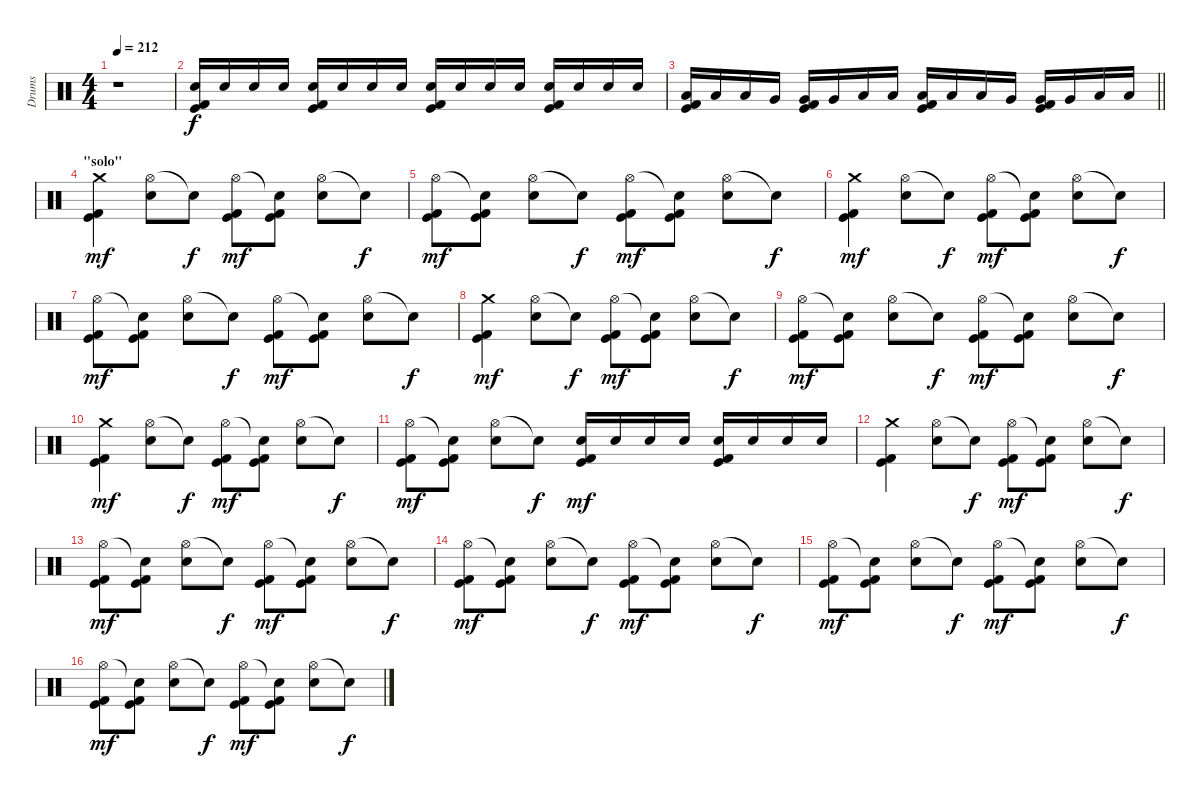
\track ("Drums" "Drums") {instrument percussion}
\staff {score}
\articulation defaults
\ts (4 4)
\tempo 212
\clef neutral
\ks c
r.1{dy ff} |
("Snare (hit) 2" "Kick (hit)" "Kick (hit) 2").16{dy f} "Snare (hit) 2".16 "Snare (hit) 2".16 "Snare (hit) 2".16 ("Snare (hit) 2" "Kick (hit)" "Kick (hit) 2").16 "Snare (hit) 2".16 "Snare (hit) 2".16 "Snare (hit) 2".16 ("Snare (hit) 2" "Kick (hit)" "Kick (hit) 2").16 "Snare (hit) 2".16 "Snare (hit) 2".16 "Snare (hit) 2".16 ("Snare (hit) 2" "Kick (hit)" "Kick (hit) 2").16 "Snare (hit) 2".16 "Snare (hit) 2".16 "Snare (hit) 2".16 |
\barLineRight lightlight
("Low Tom (hit)" "Kick (hit)" "Kick (hit) 2").16 "Low Tom (hit)".16 "Low Tom (hit)".16 "Very Low Tom (hit)".16 ("Very Low Tom (hit)" "Kick (hit)" "Kick (hit) 2").16 "Very Low Tom (hit)".16 "Low Floor Tom (hit)".16 "Low Floor Tom (hit)".16 ("Low Tom (hit)" "Kick (hit)" "Kick (hit) 2").16 "Low Tom (hit)".16 "Low Tom (hit)".16 "Very Low Tom (hit)".16 ("Very Low Tom (hit)" "Kick (hit)" "Kick (hit) 2").16 "Very Low Tom (hit)".16 "Low Floor Tom (hit)".16 "Low Floor Tom (hit)".16 |
\section ("" "\"solo\"")
("Crash medium (hit)" "Kick (hit)" "Kick (hit) 2").4{dy mf} ("Hi-Hat (open)" "Snare (hit) 2").8 "Snare (hit)"{t}.8{dy f} ("Hi-Hat (open)" "Kick (hit)" "Kick (hit) 2").8{dy mf} ("Snare (hit)"{t} "Kick (hit)" "Kick (hit) 2").8 ("Hi-Hat (open)" "Snare (hit) 2").8 "Snare (hit)"{t}.8{dy f} |
("Hi-Hat (open)" "Kick (hit)" "Kick (hit) 2").8{dy mf} ("Snare (hit)"{t} "Kick (hit)" "Kick (hit) 2").8 ("Hi-Hat (open)" "Snare (hit) 2").8 "Snare (hit)"{t}.8{dy f} ("Hi-Hat (open)" "Kick (hit)" "Kick (hit) 2").8{dy mf} ("Snare (hit)"{t} "Kick (hit)" "Kick (hit) 2").8 ("Hi-Hat (open)" "Snare (hit) 2").8 "Snare (hit)"{t}.8{dy f} |
("Crash medium (hit)" "Kick (hit)" "Kick (hit) 2").4{dy mf} ("Hi-Hat (open)" "Snare (hit) 2").8 "Snare (hit)"{t}.8{dy f} ("Hi-Hat (open)" "Kick (hit)" "Kick (hit) 2").8{dy mf} ("Snare (hit)"{t} "Kick (hit)" "Kick (hit) 2").8 ("Hi-Hat (open)" "Snare (hit) 2").8 "Snare (hit)"{t}.8{dy f} |
("Hi-Hat (open)" "Kick (hit)" "Kick (hit) 2").8{dy mf} ("Snare (hit)"{t} "Kick (hit)" "Kick (hit) 2").8 ("Hi-Hat (open)" "Snare (hit) 2").8 "Snare (hit)"{t}.8{dy f} ("Hi-Hat (open)" "Kick (hit)" "Kick (hit) 2").8{dy mf} ("Snare (hit)"{t} "Kick (hit)" "Kick (hit) 2").8 ("Hi-Hat (open)" "Snare (hit) 2").8 "Snare (hit)"{t}.8{dy f} |
("Crash medium (hit)" "Kick (hit)" "Kick (hit) 2").4{dy mf} ("Hi-Hat (open)" "Snare (hit) 2").8 "Snare (hit)"{t}.8{dy f} ("Hi-Hat (open)" "Kick (hit)" "Kick (hit) 2").8{dy mf} ("Snare (hit)"{t} "Kick (hit)" "Kick (hit) 2").8 ("Hi-Hat (open)" "Snare (hit) 2").8 "Snare (hit)"{t}.8{dy f} |
("Hi-Hat (open)" "Kick (hit)" "Kick (hit) 2").8{dy mf} ("Snare (hit)"{t} "Kick (hit)" "Kick (hit) 2").8 ("Hi-Hat (open)" "Snare (hit) 2").8 "Snare (hit)"{t}.8{dy f} ("Hi-Hat (open)" "Kick (hit)" "Kick (hit) 2").8{dy mf} ("Snare (hit)"{t} "Kick (hit)" "Kick (hit) 2").8 ("Hi-Hat (open)" "Snare (hit) 2").8 "Snare (hit)"{t}.8{dy f} |
("Crash medium (hit)" "Kick (hit)" "Kick (hit) 2").4{dy mf} ("Hi-Hat (open)" "Snare (hit) 2").8 "Snare (hit)"{t}.8{dy f} ("Hi-Hat (open)" "Kick (hit)" "Kick (hit) 2").8{dy mf} ("Snare (hit)"{t} "Kick (hit)" "Kick (hit) 2").8 ("Hi-Hat (open)" "Snare (hit) 2").8 "Snare (hit)"{t}.8{dy f} |
("Hi-Hat (open)" "Kick (hit)" "Kick (hit) 2").8{dy mf} ("Snare (hit)"{t} "Kick (hit)" "Kick (hit) 2").8 ("Hi-Hat (open)" "Snare (hit) 2").8 "Snare (hit)"{t}.8{dy f} ("Snare (hit) 2" "Kick (hit)" "Kick (hit) 2").16{dy mf} "Snare (hit) 2".16 "Snare (hit) 2".16 "Snare (hit) 2".16 ("Snare (hit) 2" "Kick (hit)" "Kick (hit) 2").16 "Snare (hit) 2".16 "Snare (hit) 2".16 "Snare (hit) 2".16 |
("Crash medium (hit)" "Kick (hit)" "Kick (hit) 2").4 ("Hi-Hat (open)" "Snare (hit) 2").8 "Snare (hit)"{t}.8{dy f} ("Hi-Hat (open)" "Kick (hit)" "Kick (hit) 2").8{dy mf} ("Snare (hit)"{t} "Kick (hit)" "Kick (hit) 2").8 ("Hi-Hat (open)" "Snare (hit) 2").8 "Snare (hit)"{t}.8{dy f} |
("Hi-Hat (open)" "Kick (hit)" "Kick (hit) 2").8{dy mf} ("Snare (hit)"{t} "Kick (hit)" "Kick (hit) 2").8 ("Hi-Hat (open)" "Snare (hit) 2").8 "Snare (hit)"{t}.8{dy f} ("Hi-Hat (open)" "Kick (hit)" "Kick (hit) 2").8{dy mf} ("Snare (hit)"{t} "Kick (hit)" "Kick (hit) 2").8 ("Hi-Hat (open)" "Snare (hit) 2").8 "Snare (hit)"{t}.8{dy f} |
("Hi-Hat (open)" "Kick (hit)" "Kick (hit) 2").8{dy mf} ("Snare (hit)"{t} "Kick (hit)" "Kick (hit) 2").8 ("Hi-Hat (open)" "Snare (hit) 2").8 "Snare (hit)"{t}.8{dy f} ("Hi-Hat (open)" "Kick (hit)" "Kick (hit) 2").8{dy mf} ("Snare (hit)"{t} "Kick (hit)" "Kick (hit) 2").8 ("Hi-Hat (open)" "Snare (hit) 2").8 "Snare (hit)"{t}.8{dy f} |
("Hi-Hat (open)" "Kick (hit)" "Kick (hit) 2").8{dy mf} ("Snare (hit)"{t} "Kick (hit)" "Kick (hit) 2").8 ("Hi-Hat (open)" "Snare (hit) 2").8 "Snare (hit)"{t}.8{dy f} ("Hi-Hat (open)" "Kick (hit)" "Kick (hit) 2").8{dy mf} ("Snare (hit)"{t} "Kick (hit)" "Kick (hit) 2").8 ("Hi-Hat (open)" "Snare (hit) 2").8 "Snare (hit)"{t}.8{dy f} |
("Hi-Hat (open)" "Kick (hit)" "Kick (hit) 2").8{dy mf} ("Snare (hit)"{t} "Kick (hit)" "Kick (hit) 2").8 ("Hi-Hat (open)" "Snare (hit) 2").8 "Snare (hit)"{t}.8{dy f} ("Hi-Hat (open)" "Kick (hit)" "Kick (hit) 2").8{dy mf} ("Snare (hit)"{t} "Kick (hit)" "Kick (hit) 2").8 ("Hi-Hat (open)" "Snare (hit) 2").8 "Snare (hit)"{t}.8{dy f}
